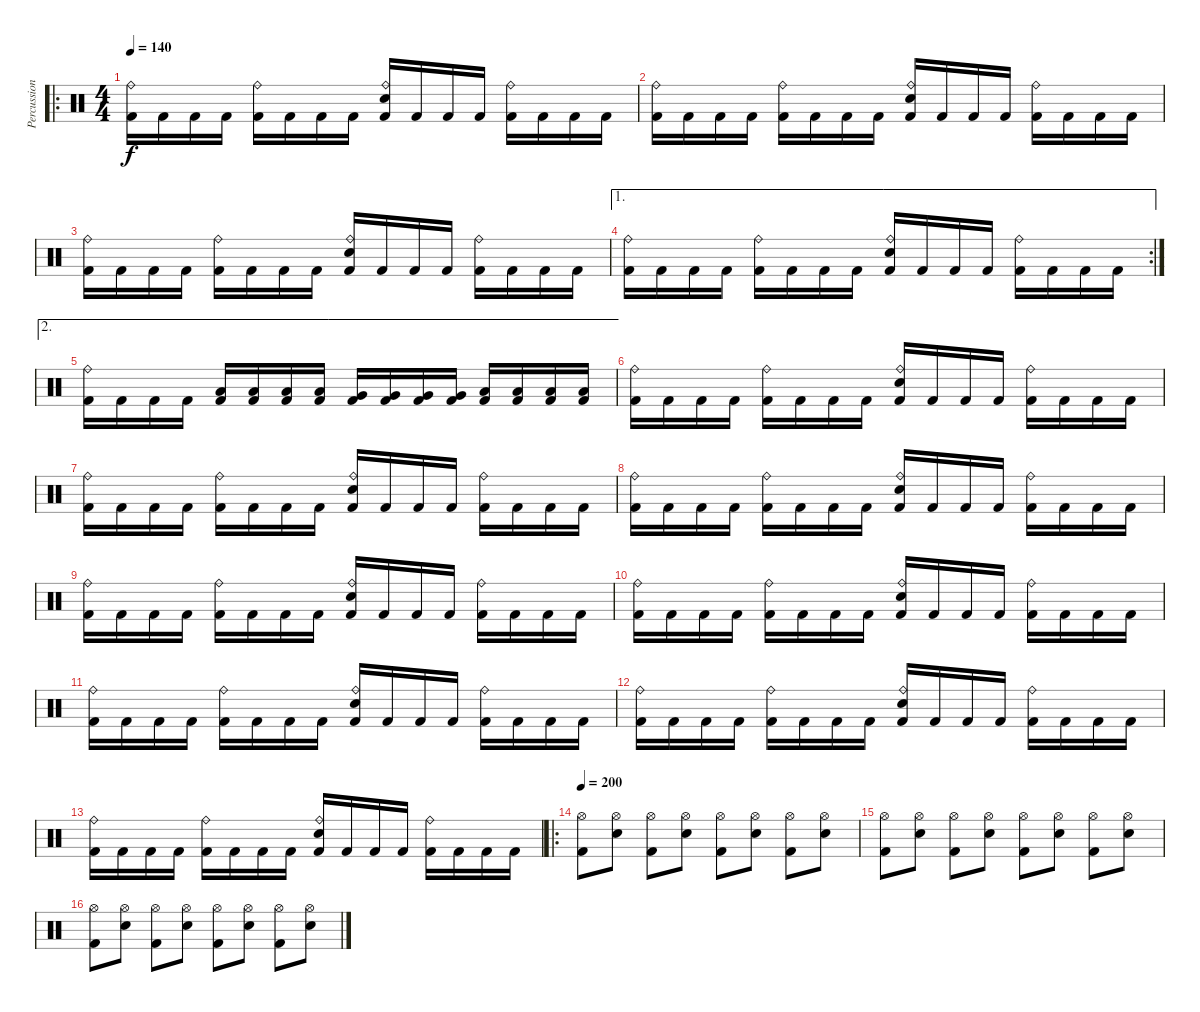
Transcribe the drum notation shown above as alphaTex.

\track ("Percussion" "Percussion") {instrument percussion}
\staff {score}
\articulation defaults
\ro
\ts (4 4)
\tempo 140
\clef neutral
\ks c
("Kick (hit) 2" "Ride (bell)").16{dy f} "Kick (hit) 2".16 "Kick (hit) 2".16 "Kick (hit) 2".16 ("Kick (hit) 2" "Ride (bell)").16 "Kick (hit) 2".16 "Kick (hit) 2".16 "Kick (hit) 2".16 ("Kick (hit) 2" "Snare (hit) 2" "Ride (bell)").16 "Kick (hit) 2".16 "Kick (hit) 2".16 "Kick (hit) 2".16 ("Kick (hit) 2" "Ride (bell)").16 "Kick (hit) 2".16 "Kick (hit) 2".16 "Kick (hit) 2".16 |
("Kick (hit) 2" "Ride (bell)").16 "Kick (hit) 2".16 "Kick (hit) 2".16 "Kick (hit) 2".16 ("Kick (hit) 2" "Ride (bell)").16 "Kick (hit) 2".16 "Kick (hit) 2".16 "Kick (hit) 2".16 ("Kick (hit) 2" "Snare (hit) 2" "Ride (bell)").16 "Kick (hit) 2".16 "Kick (hit) 2".16 "Kick (hit) 2".16 ("Kick (hit) 2" "Ride (bell)").16 "Kick (hit) 2".16 "Kick (hit) 2".16 "Kick (hit) 2".16 |
("Kick (hit) 2" "Ride (bell)").16 "Kick (hit) 2".16 "Kick (hit) 2".16 "Kick (hit) 2".16 ("Kick (hit) 2" "Ride (bell)").16 "Kick (hit) 2".16 "Kick (hit) 2".16 "Kick (hit) 2".16 ("Kick (hit) 2" "Snare (hit) 2" "Ride (bell)").16 "Kick (hit) 2".16 "Kick (hit) 2".16 "Kick (hit) 2".16 ("Kick (hit) 2" "Ride (bell)").16 "Kick (hit) 2".16 "Kick (hit) 2".16 "Kick (hit) 2".16 |
\ae 1
\rc 2
("Kick (hit) 2" "Ride (bell)").16 "Kick (hit) 2".16 "Kick (hit) 2".16 "Kick (hit) 2".16 ("Kick (hit) 2" "Ride (bell)").16 "Kick (hit) 2".16 "Kick (hit) 2".16 "Kick (hit) 2".16 ("Kick (hit) 2" "Snare (hit) 2" "Ride (bell)").16 "Kick (hit) 2".16 "Kick (hit) 2".16 "Kick (hit) 2".16 ("Kick (hit) 2" "Ride (bell)").16 "Kick (hit) 2".16 "Kick (hit) 2".16 "Kick (hit) 2".16 |
\ae 2
("Kick (hit) 2" "Ride (bell)").16 "Kick (hit) 2".16 "Kick (hit) 2".16 "Kick (hit) 2".16 ("Kick (hit) 2" "Low Tom (hit)").16 ("Kick (hit) 2" "Low Tom (hit)").16 ("Kick (hit) 2" "Low Tom (hit)").16 ("Kick (hit) 2" "Low Tom (hit)").16 ("Kick (hit) 2" "Very Low Tom (hit)").16 ("Kick (hit) 2" "Very Low Tom (hit)").16 ("Kick (hit) 2" "Very Low Tom (hit)").16 ("Kick (hit) 2" "Very Low Tom (hit)").16 ("Kick (hit) 2" "Low Floor Tom (hit)").16 ("Kick (hit) 2" "Low Floor Tom (hit)").16 ("Kick (hit) 2" "Low Floor Tom (hit)").16 ("Kick (hit) 2" "Low Floor Tom (hit)").16 |
("Kick (hit) 2" "Ride (bell)").16 "Kick (hit) 2".16 "Kick (hit) 2".16 "Kick (hit) 2".16 ("Kick (hit) 2" "Ride (bell)").16 "Kick (hit) 2".16 "Kick (hit) 2".16 "Kick (hit) 2".16 ("Kick (hit) 2" "Snare (hit) 2" "Ride (bell)").16 "Kick (hit) 2".16 "Kick (hit) 2".16 "Kick (hit) 2".16 ("Kick (hit) 2" "Ride (bell)").16 "Kick (hit) 2".16 "Kick (hit) 2".16 "Kick (hit) 2".16 |
("Kick (hit) 2" "Ride (bell)").16 "Kick (hit) 2".16 "Kick (hit) 2".16 "Kick (hit) 2".16 ("Kick (hit) 2" "Ride (bell)").16 "Kick (hit) 2".16 "Kick (hit) 2".16 "Kick (hit) 2".16 ("Kick (hit) 2" "Snare (hit) 2" "Ride (bell)").16 "Kick (hit) 2".16 "Kick (hit) 2".16 "Kick (hit) 2".16 ("Kick (hit) 2" "Ride (bell)").16 "Kick (hit) 2".16 "Kick (hit) 2".16 "Kick (hit) 2".16 |
("Kick (hit) 2" "Ride (bell)").16 "Kick (hit) 2".16 "Kick (hit) 2".16 "Kick (hit) 2".16 ("Kick (hit) 2" "Ride (bell)").16 "Kick (hit) 2".16 "Kick (hit) 2".16 "Kick (hit) 2".16 ("Kick (hit) 2" "Snare (hit) 2" "Ride (bell)").16 "Kick (hit) 2".16 "Kick (hit) 2".16 "Kick (hit) 2".16 ("Kick (hit) 2" "Ride (bell)").16 "Kick (hit) 2".16 "Kick (hit) 2".16 "Kick (hit) 2".16 |
("Kick (hit) 2" "Ride (bell)").16 "Kick (hit) 2".16 "Kick (hit) 2".16 "Kick (hit) 2".16 ("Kick (hit) 2" "Ride (bell)").16 "Kick (hit) 2".16 "Kick (hit) 2".16 "Kick (hit) 2".16 ("Kick (hit) 2" "Snare (hit) 2" "Ride (bell)").16 "Kick (hit) 2".16 "Kick (hit) 2".16 "Kick (hit) 2".16 ("Kick (hit) 2" "Ride (bell)").16 "Kick (hit) 2".16 "Kick (hit) 2".16 "Kick (hit) 2".16 |
("Kick (hit) 2" "Ride (bell)").16 "Kick (hit) 2".16 "Kick (hit) 2".16 "Kick (hit) 2".16 ("Kick (hit) 2" "Ride (bell)").16 "Kick (hit) 2".16 "Kick (hit) 2".16 "Kick (hit) 2".16 ("Kick (hit) 2" "Snare (hit) 2" "Ride (bell)").16 "Kick (hit) 2".16 "Kick (hit) 2".16 "Kick (hit) 2".16 ("Kick (hit) 2" "Ride (bell)").16 "Kick (hit) 2".16 "Kick (hit) 2".16 "Kick (hit) 2".16 |
("Kick (hit) 2" "Ride (bell)").16 "Kick (hit) 2".16 "Kick (hit) 2".16 "Kick (hit) 2".16 ("Kick (hit) 2" "Ride (bell)").16 "Kick (hit) 2".16 "Kick (hit) 2".16 "Kick (hit) 2".16 ("Kick (hit) 2" "Snare (hit) 2" "Ride (bell)").16 "Kick (hit) 2".16 "Kick (hit) 2".16 "Kick (hit) 2".16 ("Kick (hit) 2" "Ride (bell)").16 "Kick (hit) 2".16 "Kick (hit) 2".16 "Kick (hit) 2".16 |
("Kick (hit) 2" "Ride (bell)").16 "Kick (hit) 2".16 "Kick (hit) 2".16 "Kick (hit) 2".16 ("Kick (hit) 2" "Ride (bell)").16 "Kick (hit) 2".16 "Kick (hit) 2".16 "Kick (hit) 2".16 ("Kick (hit) 2" "Snare (hit) 2" "Ride (bell)").16 "Kick (hit) 2".16 "Kick (hit) 2".16 "Kick (hit) 2".16 ("Kick (hit) 2" "Ride (bell)").16 "Kick (hit) 2".16 "Kick (hit) 2".16 "Kick (hit) 2".16 |
("Kick (hit) 2" "Ride (bell)").16 "Kick (hit) 2".16 "Kick (hit) 2".16 "Kick (hit) 2".16 ("Kick (hit) 2" "Ride (bell)").16 "Kick (hit) 2".16 "Kick (hit) 2".16 "Kick (hit) 2".16 ("Kick (hit) 2" "Snare (hit) 2" "Ride (bell)").16 "Kick (hit) 2".16 "Kick (hit) 2".16 "Kick (hit) 2".16 ("Kick (hit) 2" "Ride (bell)").16 "Kick (hit) 2".16 "Kick (hit) 2".16 "Kick (hit) 2".16 |
\ro
\tempo 200
("Kick (hit) 2" "Hi-Hat (open)").8 ("Snare (hit) 2" "Hi-Hat (open)").8 ("Kick (hit) 2" "Hi-Hat (open)").8 ("Snare (hit) 2" "Hi-Hat (open)").8 ("Kick (hit) 2" "Hi-Hat (open)").8 ("Snare (hit) 2" "Hi-Hat (open)").8 ("Kick (hit) 2" "Hi-Hat (open)").8 ("Snare (hit) 2" "Hi-Hat (open)").8 |
("Kick (hit) 2" "Hi-Hat (open)").8 ("Snare (hit) 2" "Hi-Hat (open)").8 ("Kick (hit) 2" "Hi-Hat (open)").8 ("Snare (hit) 2" "Hi-Hat (open)").8 ("Kick (hit) 2" "Hi-Hat (open)").8 ("Snare (hit) 2" "Hi-Hat (open)").8 ("Kick (hit) 2" "Hi-Hat (open)").8 ("Snare (hit) 2" "Hi-Hat (open)").8 |
("Kick (hit) 2" "Hi-Hat (open)").8 ("Snare (hit) 2" "Hi-Hat (open)").8 ("Kick (hit) 2" "Hi-Hat (open)").8 ("Snare (hit) 2" "Hi-Hat (open)").8 ("Kick (hit) 2" "Hi-Hat (open)").8 ("Snare (hit) 2" "Hi-Hat (open)").8 ("Kick (hit) 2" "Hi-Hat (open)").8 ("Snare (hit) 2" "Hi-Hat (open)").8
